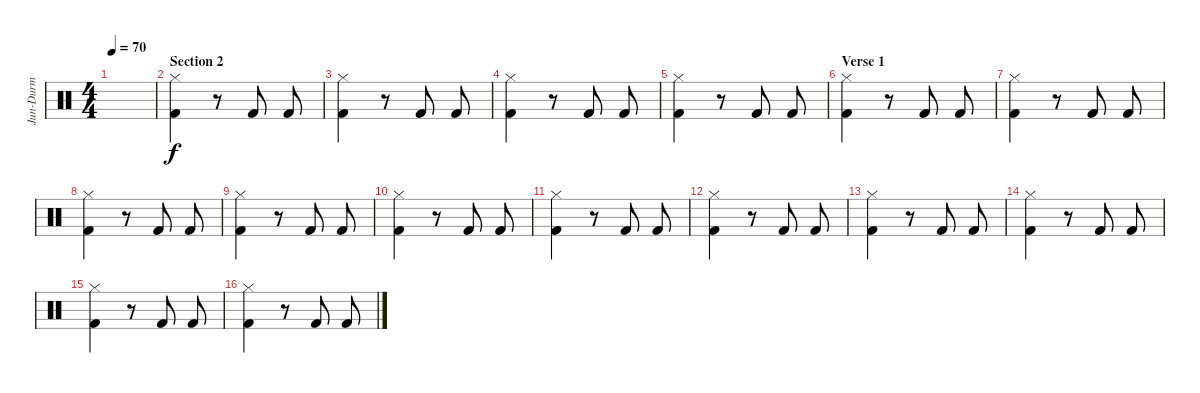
\track ("Jun-Durm" "Jun-Durm") {instrument percussion}
\staff {score}
\articulation defaults
\ts (4 4)
\tempo 70
\clef neutral
\ks c
|
\section ("" "Section 2")
("Hi-Hat (closed)" "Kick (hit) 2").4 r.8 "Kick (hit) 2".8 "Kick (hit) 2".8 |
("Hi-Hat (closed)" "Kick (hit) 2").4 r.8 "Kick (hit) 2".8 "Kick (hit) 2".8 |
("Hi-Hat (closed)" "Kick (hit) 2").4 r.8 "Kick (hit) 2".8 "Kick (hit) 2".8 |
("Hi-Hat (closed)" "Kick (hit) 2").4 r.8 "Kick (hit) 2".8 "Kick (hit) 2".8 |
\section ("" "Verse 1")
("Hi-Hat (closed)" "Kick (hit) 2").4 r.8 "Kick (hit) 2".8 "Kick (hit) 2".8 |
("Hi-Hat (closed)" "Kick (hit) 2").4 r.8 "Kick (hit) 2".8 "Kick (hit) 2".8 |
("Hi-Hat (closed)" "Kick (hit) 2").4 r.8 "Kick (hit) 2".8 "Kick (hit) 2".8 |
("Hi-Hat (closed)" "Kick (hit) 2").4 r.8 "Kick (hit) 2".8 "Kick (hit) 2".8 |
("Hi-Hat (closed)" "Kick (hit) 2").4 r.8 "Kick (hit) 2".8 "Kick (hit) 2".8 |
("Hi-Hat (closed)" "Kick (hit) 2").4 r.8 "Kick (hit) 2".8 "Kick (hit) 2".8 |
("Hi-Hat (closed)" "Kick (hit) 2").4 r.8 "Kick (hit) 2".8 "Kick (hit) 2".8 |
("Hi-Hat (closed)" "Kick (hit) 2").4 r.8 "Kick (hit) 2".8 "Kick (hit) 2".8 |
("Hi-Hat (closed)" "Kick (hit) 2").4 r.8 "Kick (hit) 2".8 "Kick (hit) 2".8 |
("Hi-Hat (closed)" "Kick (hit) 2").4 r.8 "Kick (hit) 2".8 "Kick (hit) 2".8 |
("Hi-Hat (closed)" "Kick (hit) 2").4 r.8 "Kick (hit) 2".8 "Kick (hit) 2".8
